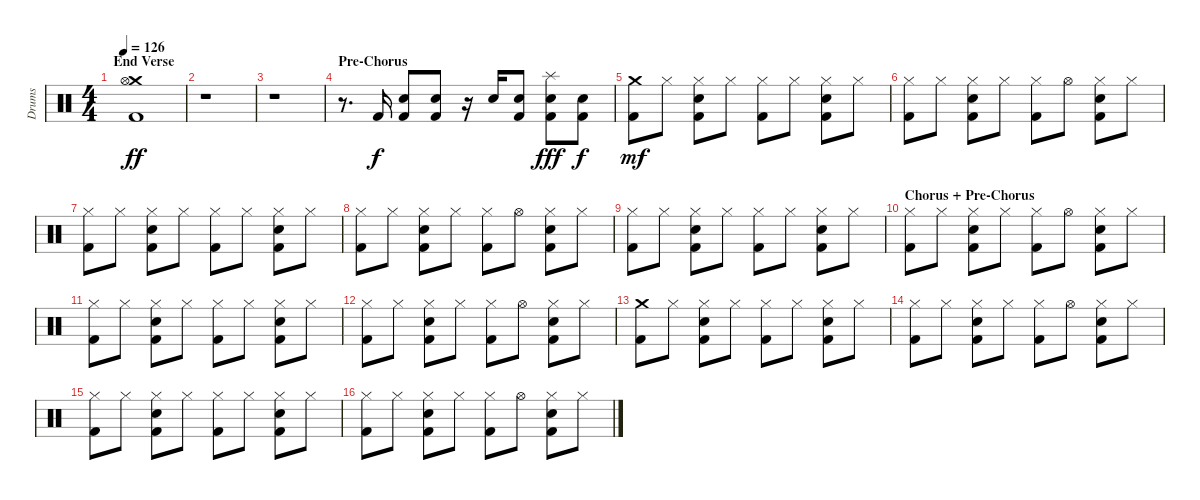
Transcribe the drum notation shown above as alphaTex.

\track ("Drums" "Drums") {instrument percussion}
\staff {score}
\articulation defaults
\ts (4 4)
\section ("" "End Verse")
\tempo 126
\clef neutral
\ks c
("Crash medium (hit)" "Hi-Hat (open)" "Kick (hit) 2").1{dy ff} |
r.1 |
r.1 |
\section ("" "Pre-Chorus")
r.8{d} "Kick (hit) 2".16{dy f} ("Snare (hit) 2" "Kick (hit) 2").8 ("Snare (hit) 2" "Kick (hit) 2").8 r.16 "Snare (hit) 2".16 ("Snare (hit) 2" "Kick (hit) 2").8 ("Splash (hit)" "Snare (hit) 2" "Kick (hit) 2").8{dy fff} ("Snare (hit) 2" "Kick (hit) 2").8{dy f} |
("Crash medium (hit)" "Kick (hit) 2").8{dy mf} "Hi-Hat (closed)".8 ("Hi-Hat (closed)" "Snare (hit) 2" "Kick (hit) 2").8 "Hi-Hat (closed)".8 ("Hi-Hat (closed)" "Kick (hit) 2").8 "Hi-Hat (closed)".8 ("Hi-Hat (closed)" "Snare (hit) 2" "Kick (hit) 2").8 "Hi-Hat (closed)".8 |
("Hi-Hat (closed)" "Kick (hit) 2").8 "Hi-Hat (closed)".8 ("Hi-Hat (closed)" "Snare (hit) 2" "Kick (hit) 2").8 "Hi-Hat (closed)".8 ("Hi-Hat (closed)" "Kick (hit) 2").8 "Hi-Hat (open)".8 ("Hi-Hat (closed)" "Snare (hit) 2" "Kick (hit) 2").8 "Hi-Hat (closed)".8 |
("Hi-Hat (closed)" "Kick (hit) 2").8 "Hi-Hat (closed)".8 ("Hi-Hat (closed)" "Snare (hit) 2" "Kick (hit) 2").8 "Hi-Hat (closed)".8 ("Hi-Hat (closed)" "Kick (hit) 2").8 "Hi-Hat (closed)".8 ("Hi-Hat (closed)" "Snare (hit) 2" "Kick (hit) 2").8 "Hi-Hat (closed)".8 |
("Hi-Hat (closed)" "Kick (hit) 2").8 "Hi-Hat (closed)".8 ("Hi-Hat (closed)" "Snare (hit) 2" "Kick (hit) 2").8 "Hi-Hat (closed)".8 ("Hi-Hat (closed)" "Kick (hit) 2").8 "Hi-Hat (open)".8 ("Hi-Hat (closed)" "Snare (hit) 2" "Kick (hit) 2").8 "Hi-Hat (closed)".8 |
("Hi-Hat (closed)" "Kick (hit) 2").8 "Hi-Hat (closed)".8 ("Hi-Hat (closed)" "Snare (hit) 2" "Kick (hit) 2").8 "Hi-Hat (closed)".8 ("Hi-Hat (closed)" "Kick (hit) 2").8 "Hi-Hat (closed)".8 ("Hi-Hat (closed)" "Snare (hit) 2" "Kick (hit) 2").8 "Hi-Hat (closed)".8 |
\section ("" "Chorus + Pre-Chorus")
("Hi-Hat (closed)" "Kick (hit) 2").8 "Hi-Hat (closed)".8 ("Hi-Hat (closed)" "Snare (hit) 2" "Kick (hit) 2").8 "Hi-Hat (closed)".8 ("Hi-Hat (closed)" "Kick (hit) 2").8 "Hi-Hat (open)".8 ("Hi-Hat (closed)" "Snare (hit) 2" "Kick (hit) 2").8 "Hi-Hat (closed)".8 |
("Hi-Hat (closed)" "Kick (hit) 2").8 "Hi-Hat (closed)".8 ("Hi-Hat (closed)" "Snare (hit) 2" "Kick (hit) 2").8 "Hi-Hat (closed)".8 ("Hi-Hat (closed)" "Kick (hit) 2").8 "Hi-Hat (closed)".8 ("Hi-Hat (closed)" "Snare (hit) 2" "Kick (hit) 2").8 "Hi-Hat (closed)".8 |
("Hi-Hat (closed)" "Kick (hit) 2").8 "Hi-Hat (closed)".8 ("Hi-Hat (closed)" "Snare (hit) 2" "Kick (hit) 2").8 "Hi-Hat (closed)".8 ("Hi-Hat (closed)" "Kick (hit) 2").8 "Hi-Hat (open)".8 ("Hi-Hat (closed)" "Snare (hit) 2" "Kick (hit) 2").8 "Hi-Hat (closed)".8 |
("Crash medium (hit)" "Kick (hit) 2").8 "Hi-Hat (closed)".8 ("Hi-Hat (closed)" "Snare (hit) 2" "Kick (hit) 2").8 "Hi-Hat (closed)".8 ("Hi-Hat (closed)" "Kick (hit) 2").8 "Hi-Hat (closed)".8 ("Hi-Hat (closed)" "Snare (hit) 2" "Kick (hit) 2").8 "Hi-Hat (closed)".8 |
("Hi-Hat (closed)" "Kick (hit) 2").8 "Hi-Hat (closed)".8 ("Hi-Hat (closed)" "Snare (hit) 2" "Kick (hit) 2").8 "Hi-Hat (closed)".8 ("Hi-Hat (closed)" "Kick (hit) 2").8 "Hi-Hat (open)".8 ("Hi-Hat (closed)" "Snare (hit) 2" "Kick (hit) 2").8 "Hi-Hat (closed)".8 |
("Hi-Hat (closed)" "Kick (hit) 2").8 "Hi-Hat (closed)".8 ("Hi-Hat (closed)" "Snare (hit) 2" "Kick (hit) 2").8 "Hi-Hat (closed)".8 ("Hi-Hat (closed)" "Kick (hit) 2").8 "Hi-Hat (closed)".8 ("Hi-Hat (closed)" "Snare (hit) 2" "Kick (hit) 2").8 "Hi-Hat (closed)".8 |
("Hi-Hat (closed)" "Kick (hit) 2").8 "Hi-Hat (closed)".8 ("Hi-Hat (closed)" "Snare (hit) 2" "Kick (hit) 2").8 "Hi-Hat (closed)".8 ("Hi-Hat (closed)" "Kick (hit) 2").8 "Hi-Hat (open)".8 ("Hi-Hat (closed)" "Snare (hit) 2" "Kick (hit) 2").8 "Hi-Hat (closed)".8
